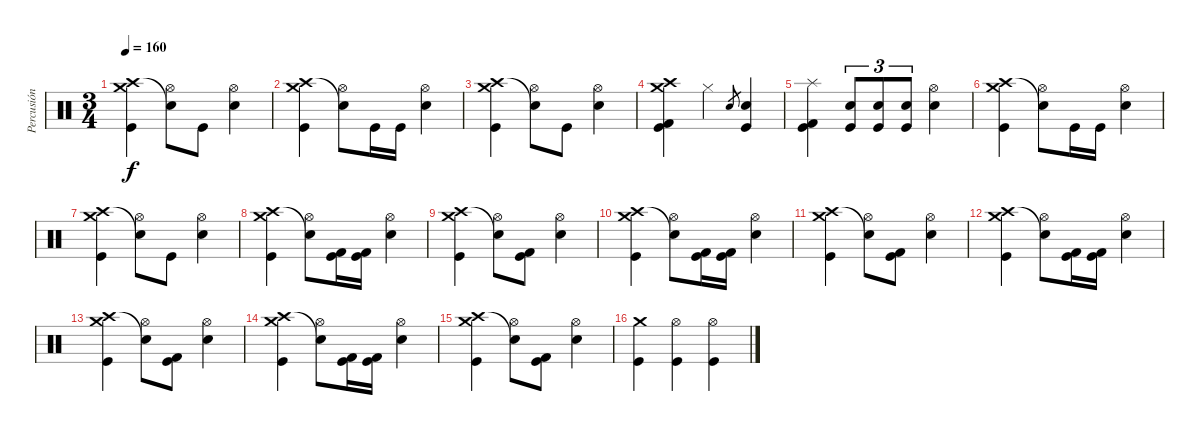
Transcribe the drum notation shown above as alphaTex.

\track ("Percusión" "Percusión") {instrument percussion}
\staff {score}
\articulation defaults
\ts (3 4)
\tempo 160
\clef neutral
\ks c
("Crash medium (hit)" "Crash high (hit)" "Kick (hit)").4{dy f} ("Hi-Hat (open)" "Snare (hit)"{t}).8 "Kick (hit)".8 ("Hi-Hat (open)" "Electric Snare (hit)").4 |
("Crash medium (hit)" "Crash high (hit)" "Kick (hit)").4 ("Hi-Hat (open)" "Snare (hit)"{t}).8 "Kick (hit)".16 "Kick (hit)".16 ("Hi-Hat (open)" "Electric Snare (hit)").4 |
("Crash medium (hit)" "Crash high (hit)" "Kick (hit)").4 ("Hi-Hat (open)" "Snare (hit)"{t}).8 "Kick (hit)".8 ("Hi-Hat (open)" "Electric Snare (hit)").4 |
("Crash medium (hit)" "Crash high (hit)" "Kick (hit) 2" "Kick (hit)").4 "Hi-Hat (closed)".4 "Electric Snare (hit)".8{gr} ("Electric Snare (hit)" "Kick (hit)").4 |
("Splash (hit)" "Kick (hit) 2" "Kick (hit)").4 ("Electric Snare (hit)" "Kick (hit)").8{tu (3 2)} ("Electric Snare (hit)" "Kick (hit)").8{tu (3 2)} ("Electric Snare (hit)" "Kick (hit)").8{tu (3 2)} ("Hi-Hat (open)" "Electric Snare (hit)").4 |
("Crash medium (hit)" "Crash high (hit)" "Kick (hit)").4 ("Hi-Hat (open)" "Snare (hit)"{t}).8 "Kick (hit)".16 "Kick (hit)".16 ("Hi-Hat (open)" "Electric Snare (hit)").4 |
("Crash medium (hit)" "Crash high (hit)" "Kick (hit)").4 ("Hi-Hat (open)" "Snare (hit)"{t}).8 "Kick (hit)".8 ("Hi-Hat (open)" "Electric Snare (hit)").4 |
("Crash medium (hit)" "Crash high (hit)" "Kick (hit)").4 ("Hi-Hat (open)" "Snare (hit)"{t}).8 ("Kick (hit) 2" "Kick (hit)").16 ("Kick (hit) 2" "Kick (hit)").16 ("Hi-Hat (open)" "Electric Snare (hit)").4 |
("Crash medium (hit)" "Crash high (hit)" "Kick (hit)").4 ("Hi-Hat (open)" "Snare (hit)"{t}).8 ("Kick (hit) 2" "Kick (hit)").8 ("Hi-Hat (open)" "Electric Snare (hit)").4 |
("Crash medium (hit)" "Crash high (hit)" "Kick (hit)").4 ("Hi-Hat (open)" "Snare (hit)"{t}).8 ("Kick (hit) 2" "Kick (hit)").16 ("Kick (hit) 2" "Kick (hit)").16 ("Hi-Hat (open)" "Electric Snare (hit)").4 |
("Crash medium (hit)" "Crash high (hit)" "Kick (hit)").4 ("Hi-Hat (open)" "Snare (hit)"{t}).8 ("Kick (hit) 2" "Kick (hit)").8 ("Hi-Hat (open)" "Electric Snare (hit)").4 |
("Crash medium (hit)" "Crash high (hit)" "Kick (hit)").4 ("Hi-Hat (open)" "Snare (hit)"{t}).8 ("Kick (hit) 2" "Kick (hit)").16 ("Kick (hit) 2" "Kick (hit)").16 ("Hi-Hat (open)" "Electric Snare (hit)").4 |
("Crash medium (hit)" "Crash high (hit)" "Kick (hit)").4 ("Hi-Hat (open)" "Snare (hit)"{t}).8 ("Kick (hit) 2" "Kick (hit)").8 ("Hi-Hat (open)" "Electric Snare (hit)").4 |
("Crash medium (hit)" "Crash high (hit)" "Kick (hit)").4 ("Hi-Hat (open)" "Snare (hit)"{t}).8 ("Kick (hit) 2" "Kick (hit)").16 ("Kick (hit) 2" "Kick (hit)").16 ("Hi-Hat (open)" "Electric Snare (hit)").4 |
("Crash medium (hit)" "Crash high (hit)" "Kick (hit)").4 ("Hi-Hat (open)" "Snare (hit)"{t}).8 ("Kick (hit) 2" "Kick (hit)").8 ("Hi-Hat (open)" "Electric Snare (hit)").4 |
("Crash medium (hit)" "Kick (hit)").4 ("Hi-Hat (open)" "Kick (hit)").4 ("Hi-Hat (open)" "Kick (hit)").4
